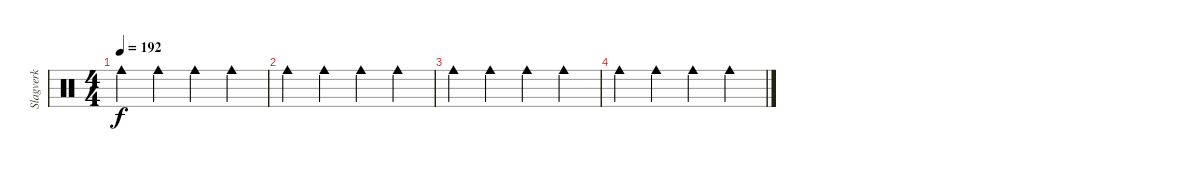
\track ("Slagverk" "Slagverk") {instrument percussion}
\staff {score}
\articulation defaults
\ts (4 4)
\tempo 192
\clef neutral
\ks c "Cowbell medium (hit)".4{dy f} "Cowbell medium (hit)".4 "Cowbell medium (hit)".4 "Cowbell medium (hit)".4
|
"Cowbell medium (hit)".4 "Cowbell medium (hit)".4 "Cowbell medium (hit)".4 "Cowbell medium (hit)".4 |
"Cowbell medium (hit)".4 "Cowbell medium (hit)".4 "Cowbell medium (hit)".4 "Cowbell medium (hit)".4 |
"Cowbell medium (hit)".4 "Cowbell medium (hit)".4 "Cowbell medium (hit)".4 "Cowbell medium (hit)".4
